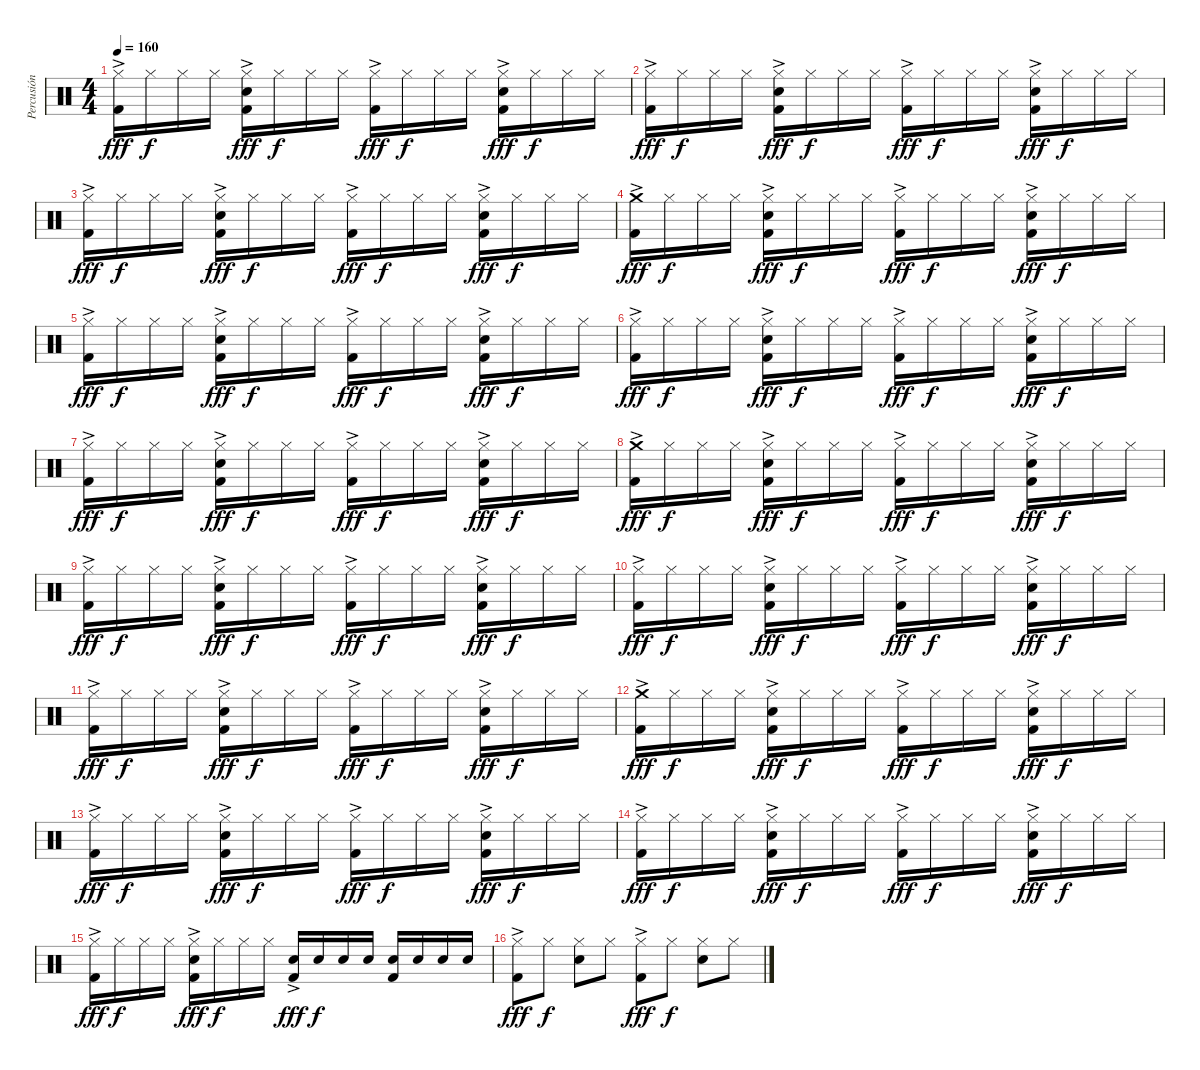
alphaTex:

\track ("Percusión" "Percusión") {instrument percussion}
\staff {score}
\articulation defaults
\ts (4 4)
\tempo 160
\clef neutral
\ks c
("Hi-Hat (closed)" "Kick (hit) 2"{ac}).16{dy fff} "Hi-Hat (closed)".16{dy f} "Hi-Hat (closed)".16 "Hi-Hat (closed)".16 ("Hi-Hat (closed)"{ac} "Electric Snare (hit)" "Kick (hit) 2").16{dy fff} "Hi-Hat (closed)".16{dy f} "Hi-Hat (closed)".16 "Hi-Hat (closed)".16 ("Hi-Hat (closed)"{ac} "Kick (hit) 2"{ac}).16{dy fff} "Hi-Hat (closed)".16{dy f} "Hi-Hat (closed)".16 "Hi-Hat (closed)".16 ("Hi-Hat (closed)"{ac} "Electric Snare (hit)" "Kick (hit) 2").16{dy fff} "Hi-Hat (closed)".16{dy f} "Hi-Hat (closed)".16 "Hi-Hat (closed)".16 |
("Hi-Hat (closed)" "Kick (hit) 2"{ac}).16{dy fff} "Hi-Hat (closed)".16{dy f} "Hi-Hat (closed)".16 "Hi-Hat (closed)".16 ("Hi-Hat (closed)"{ac} "Electric Snare (hit)" "Kick (hit) 2").16{dy fff} "Hi-Hat (closed)".16{dy f} "Hi-Hat (closed)".16 "Hi-Hat (closed)".16 ("Hi-Hat (closed)"{ac} "Kick (hit) 2"{ac}).16{dy fff} "Hi-Hat (closed)".16{dy f} "Hi-Hat (closed)".16 "Hi-Hat (closed)".16 ("Hi-Hat (closed)"{ac} "Electric Snare (hit)" "Kick (hit) 2").16{dy fff} "Hi-Hat (closed)".16{dy f} "Hi-Hat (closed)".16 "Hi-Hat (closed)".16 |
("Hi-Hat (closed)" "Kick (hit) 2"{ac}).16{dy fff} "Hi-Hat (closed)".16{dy f} "Hi-Hat (closed)".16 "Hi-Hat (closed)".16 ("Hi-Hat (closed)"{ac} "Electric Snare (hit)" "Kick (hit) 2").16{dy fff} "Hi-Hat (closed)".16{dy f} "Hi-Hat (closed)".16 "Hi-Hat (closed)".16 ("Hi-Hat (closed)"{ac} "Kick (hit) 2"{ac}).16{dy fff} "Hi-Hat (closed)".16{dy f} "Hi-Hat (closed)".16 "Hi-Hat (closed)".16 ("Hi-Hat (closed)"{ac} "Electric Snare (hit)" "Kick (hit) 2").16{dy fff} "Hi-Hat (closed)".16{dy f} "Hi-Hat (closed)".16 "Hi-Hat (closed)".16 |
("Crash medium (hit)" "Kick (hit) 2"{ac}).16{dy fff} "Hi-Hat (closed)".16{dy f} "Hi-Hat (closed)".16 "Hi-Hat (closed)".16 ("Hi-Hat (closed)"{ac} "Electric Snare (hit)" "Kick (hit) 2").16{dy fff} "Hi-Hat (closed)".16{dy f} "Hi-Hat (closed)".16 "Hi-Hat (closed)".16 ("Hi-Hat (closed)"{ac} "Kick (hit) 2"{ac}).16{dy fff} "Hi-Hat (closed)".16{dy f} "Hi-Hat (closed)".16 "Hi-Hat (closed)".16 ("Hi-Hat (closed)"{ac} "Electric Snare (hit)" "Kick (hit) 2").16{dy fff} "Hi-Hat (closed)".16{dy f} "Hi-Hat (closed)".16 "Hi-Hat (closed)".16 |
("Hi-Hat (closed)" "Kick (hit) 2"{ac}).16{dy fff} "Hi-Hat (closed)".16{dy f} "Hi-Hat (closed)".16 "Hi-Hat (closed)".16 ("Hi-Hat (closed)"{ac} "Electric Snare (hit)" "Kick (hit) 2").16{dy fff} "Hi-Hat (closed)".16{dy f} "Hi-Hat (closed)".16 "Hi-Hat (closed)".16 ("Hi-Hat (closed)"{ac} "Kick (hit) 2"{ac}).16{dy fff} "Hi-Hat (closed)".16{dy f} "Hi-Hat (closed)".16 "Hi-Hat (closed)".16 ("Hi-Hat (closed)"{ac} "Electric Snare (hit)" "Kick (hit) 2").16{dy fff} "Hi-Hat (closed)".16{dy f} "Hi-Hat (closed)".16 "Hi-Hat (closed)".16 |
("Hi-Hat (closed)" "Kick (hit) 2"{ac}).16{dy fff} "Hi-Hat (closed)".16{dy f} "Hi-Hat (closed)".16 "Hi-Hat (closed)".16 ("Hi-Hat (closed)"{ac} "Electric Snare (hit)" "Kick (hit) 2").16{dy fff} "Hi-Hat (closed)".16{dy f} "Hi-Hat (closed)".16 "Hi-Hat (closed)".16 ("Hi-Hat (closed)"{ac} "Kick (hit) 2"{ac}).16{dy fff} "Hi-Hat (closed)".16{dy f} "Hi-Hat (closed)".16 "Hi-Hat (closed)".16 ("Hi-Hat (closed)"{ac} "Electric Snare (hit)" "Kick (hit) 2").16{dy fff} "Hi-Hat (closed)".16{dy f} "Hi-Hat (closed)".16 "Hi-Hat (closed)".16 |
("Hi-Hat (closed)" "Kick (hit) 2"{ac}).16{dy fff} "Hi-Hat (closed)".16{dy f} "Hi-Hat (closed)".16 "Hi-Hat (closed)".16 ("Hi-Hat (closed)"{ac} "Electric Snare (hit)" "Kick (hit) 2").16{dy fff} "Hi-Hat (closed)".16{dy f} "Hi-Hat (closed)".16 "Hi-Hat (closed)".16 ("Hi-Hat (closed)"{ac} "Kick (hit) 2"{ac}).16{dy fff} "Hi-Hat (closed)".16{dy f} "Hi-Hat (closed)".16 "Hi-Hat (closed)".16 ("Hi-Hat (closed)"{ac} "Electric Snare (hit)" "Kick (hit) 2").16{dy fff} "Hi-Hat (closed)".16{dy f} "Hi-Hat (closed)".16 "Hi-Hat (closed)".16 |
("Crash medium (hit)" "Kick (hit) 2"{ac}).16{dy fff} "Hi-Hat (closed)".16{dy f} "Hi-Hat (closed)".16 "Hi-Hat (closed)".16 ("Hi-Hat (closed)"{ac} "Electric Snare (hit)" "Kick (hit) 2").16{dy fff} "Hi-Hat (closed)".16{dy f} "Hi-Hat (closed)".16 "Hi-Hat (closed)".16 ("Hi-Hat (closed)"{ac} "Kick (hit) 2"{ac}).16{dy fff} "Hi-Hat (closed)".16{dy f} "Hi-Hat (closed)".16 "Hi-Hat (closed)".16 ("Hi-Hat (closed)"{ac} "Electric Snare (hit)" "Kick (hit) 2").16{dy fff} "Hi-Hat (closed)".16{dy f} "Hi-Hat (closed)".16 "Hi-Hat (closed)".16 |
("Hi-Hat (closed)" "Kick (hit) 2"{ac}).16{dy fff} "Hi-Hat (closed)".16{dy f} "Hi-Hat (closed)".16 "Hi-Hat (closed)".16 ("Hi-Hat (closed)"{ac} "Electric Snare (hit)" "Kick (hit) 2").16{dy fff} "Hi-Hat (closed)".16{dy f} "Hi-Hat (closed)".16 "Hi-Hat (closed)".16 ("Hi-Hat (closed)"{ac} "Kick (hit) 2"{ac}).16{dy fff} "Hi-Hat (closed)".16{dy f} "Hi-Hat (closed)".16 "Hi-Hat (closed)".16 ("Hi-Hat (closed)"{ac} "Electric Snare (hit)" "Kick (hit) 2").16{dy fff} "Hi-Hat (closed)".16{dy f} "Hi-Hat (closed)".16 "Hi-Hat (closed)".16 |
("Hi-Hat (closed)" "Kick (hit) 2"{ac}).16{dy fff} "Hi-Hat (closed)".16{dy f} "Hi-Hat (closed)".16 "Hi-Hat (closed)".16 ("Hi-Hat (closed)"{ac} "Electric Snare (hit)" "Kick (hit) 2").16{dy fff} "Hi-Hat (closed)".16{dy f} "Hi-Hat (closed)".16 "Hi-Hat (closed)".16 ("Hi-Hat (closed)"{ac} "Kick (hit) 2"{ac}).16{dy fff} "Hi-Hat (closed)".16{dy f} "Hi-Hat (closed)".16 "Hi-Hat (closed)".16 ("Hi-Hat (closed)"{ac} "Electric Snare (hit)" "Kick (hit) 2").16{dy fff} "Hi-Hat (closed)".16{dy f} "Hi-Hat (closed)".16 "Hi-Hat (closed)".16 |
("Hi-Hat (closed)" "Kick (hit) 2"{ac}).16{dy fff} "Hi-Hat (closed)".16{dy f} "Hi-Hat (closed)".16 "Hi-Hat (closed)".16 ("Hi-Hat (closed)"{ac} "Electric Snare (hit)" "Kick (hit) 2").16{dy fff} "Hi-Hat (closed)".16{dy f} "Hi-Hat (closed)".16 "Hi-Hat (closed)".16 ("Hi-Hat (closed)"{ac} "Kick (hit) 2"{ac}).16{dy fff} "Hi-Hat (closed)".16{dy f} "Hi-Hat (closed)".16 "Hi-Hat (closed)".16 ("Hi-Hat (closed)"{ac} "Electric Snare (hit)" "Kick (hit) 2").16{dy fff} "Hi-Hat (closed)".16{dy f} "Hi-Hat (closed)".16 "Hi-Hat (closed)".16 |
("Crash medium (hit)" "Kick (hit) 2"{ac}).16{dy fff} "Hi-Hat (closed)".16{dy f} "Hi-Hat (closed)".16 "Hi-Hat (closed)".16 ("Hi-Hat (closed)"{ac} "Electric Snare (hit)" "Kick (hit) 2").16{dy fff} "Hi-Hat (closed)".16{dy f} "Hi-Hat (closed)".16 "Hi-Hat (closed)".16 ("Hi-Hat (closed)"{ac} "Kick (hit) 2"{ac}).16{dy fff} "Hi-Hat (closed)".16{dy f} "Hi-Hat (closed)".16 "Hi-Hat (closed)".16 ("Hi-Hat (closed)"{ac} "Electric Snare (hit)" "Kick (hit) 2").16{dy fff} "Hi-Hat (closed)".16{dy f} "Hi-Hat (closed)".16 "Hi-Hat (closed)".16 |
("Hi-Hat (closed)" "Kick (hit) 2"{ac}).16{dy fff} "Hi-Hat (closed)".16{dy f} "Hi-Hat (closed)".16 "Hi-Hat (closed)".16 ("Hi-Hat (closed)"{ac} "Electric Snare (hit)" "Kick (hit) 2").16{dy fff} "Hi-Hat (closed)".16{dy f} "Hi-Hat (closed)".16 "Hi-Hat (closed)".16 ("Hi-Hat (closed)"{ac} "Kick (hit) 2"{ac}).16{dy fff} "Hi-Hat (closed)".16{dy f} "Hi-Hat (closed)".16 "Hi-Hat (closed)".16 ("Hi-Hat (closed)"{ac} "Electric Snare (hit)" "Kick (hit) 2").16{dy fff} "Hi-Hat (closed)".16{dy f} "Hi-Hat (closed)".16 "Hi-Hat (closed)".16 |
("Hi-Hat (closed)" "Kick (hit) 2"{ac}).16{dy fff} "Hi-Hat (closed)".16{dy f} "Hi-Hat (closed)".16 "Hi-Hat (closed)".16 ("Hi-Hat (closed)"{ac} "Electric Snare (hit)" "Kick (hit) 2").16{dy fff} "Hi-Hat (closed)".16{dy f} "Hi-Hat (closed)".16 "Hi-Hat (closed)".16 ("Hi-Hat (closed)"{ac} "Kick (hit) 2"{ac}).16{dy fff} "Hi-Hat (closed)".16{dy f} "Hi-Hat (closed)".16 "Hi-Hat (closed)".16 ("Hi-Hat (closed)"{ac} "Electric Snare (hit)" "Kick (hit) 2").16{dy fff} "Hi-Hat (closed)".16{dy f} "Hi-Hat (closed)".16 "Hi-Hat (closed)".16 |
("Hi-Hat (closed)" "Kick (hit) 2"{ac}).16{dy fff} "Hi-Hat (closed)".16{dy f} "Hi-Hat (closed)".16 "Hi-Hat (closed)".16 ("Hi-Hat (closed)"{ac} "Electric Snare (hit)" "Kick (hit) 2").16{dy fff} "Hi-Hat (closed)".16{dy f} "Hi-Hat (closed)".16 "Hi-Hat (closed)".16 ("Electric Snare (hit)" "Kick (hit) 2"{ac}).16{dy fff} "Electric Snare (hit)".16{dy f} "Electric Snare (hit)".16 "Electric Snare (hit)".16 ("Electric Snare (hit)" "Kick (hit) 2").16 "Electric Snare (hit)".16 "Electric Snare (hit)".16 "Electric Snare (hit)".16 |
("Hi-Hat (closed)" "Kick (hit) 2"{ac}).8{dy fff} "Hi-Hat (closed)".8{dy f} ("Hi-Hat (closed)" "Electric Snare (hit)").8 "Hi-Hat (closed)".8 ("Hi-Hat (closed)" "Kick (hit) 2"{ac}).8{dy fff} "Hi-Hat (closed)".8{dy f} ("Hi-Hat (closed)" "Electric Snare (hit)").8 "Hi-Hat (closed)".8
